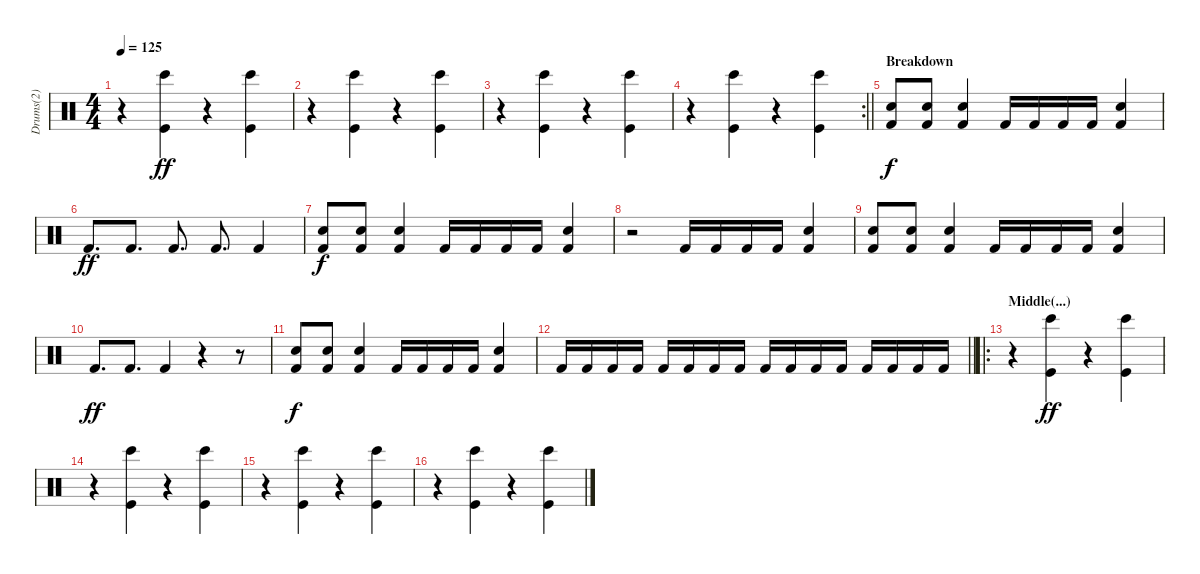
\track ("Drums(2)" "Drums(2)") {instrument percussion}
\staff {score}
\articulation defaults
\ts (4 4)
\tempo 125
\clef neutral
\ks c
r.4{dy ff} ("Kick (hit)" "Bongo High (hit)").4 r.4 ("Kick (hit)" "Bongo High (hit)").4 |
r.4 ("Kick (hit)" "Bongo High (hit)").4 r.4 ("Kick (hit)" "Bongo High (hit)").4 |
r.4 ("Kick (hit)" "Bongo High (hit)").4 r.4 ("Kick (hit)" "Bongo High (hit)").4 |
\rc 2
\barLineRight lightlight
r.4 ("Kick (hit)" "Bongo High (hit)").4 r.4 ("Kick (hit)" "Bongo High (hit)").4 |
\section ("" "Breakdown")
("Snare (hit) 2" "Kick (hit) 2").8{dy f} ("Snare (hit) 2" "Kick (hit) 2").8 ("Snare (hit) 2" "Kick (hit) 2").4 "Kick (hit) 2".16 "Kick (hit) 2".16 "Kick (hit) 2".16 "Kick (hit) 2".16 ("Snare (hit) 2" "Kick (hit) 2").4 |
"Kick (hit) 2".8{d dy ff} "Kick (hit) 2".8{d} "Kick (hit) 2".8{d} "Kick (hit) 2".8{d} "Kick (hit) 2".4 |
("Snare (hit) 2" "Kick (hit) 2").8{dy f} ("Snare (hit) 2" "Kick (hit) 2").8 ("Snare (hit) 2" "Kick (hit) 2").4 "Kick (hit) 2".16 "Kick (hit) 2".16 "Kick (hit) 2".16 "Kick (hit) 2".16 ("Snare (hit) 2" "Kick (hit) 2").4 |
r.2 "Kick (hit) 2".16 "Kick (hit) 2".16 "Kick (hit) 2".16 "Kick (hit) 2".16 ("Snare (hit) 2" "Kick (hit) 2").4 |
("Snare (hit) 2" "Kick (hit) 2").8 ("Snare (hit) 2" "Kick (hit) 2").8 ("Snare (hit) 2" "Kick (hit) 2").4 "Kick (hit) 2".16 "Kick (hit) 2".16 "Kick (hit) 2".16 "Kick (hit) 2".16 ("Snare (hit) 2" "Kick (hit) 2").4 |
"Kick (hit) 2".8{d dy ff} "Kick (hit) 2".8{d} "Kick (hit) 2".4 r.4 r.8 |
("Snare (hit) 2" "Kick (hit) 2").8{dy f} ("Snare (hit) 2" "Kick (hit) 2").8 ("Snare (hit) 2" "Kick (hit) 2").4 "Kick (hit) 2".16 "Kick (hit) 2".16 "Kick (hit) 2".16 "Kick (hit) 2".16 ("Snare (hit) 2" "Kick (hit) 2").4 |
\barLineRight lightlight "Kick (hit) 2".16 "Kick (hit) 2".16 "Kick (hit) 2".16 "Kick (hit) 2".16 "Kick (hit) 2".16 "Kick (hit) 2".16 "Kick (hit) 2".16 "Kick (hit) 2".16 "Kick (hit) 2".16 "Kick (hit) 2".16 "Kick (hit) 2".16 "Kick (hit) 2".16 "Kick (hit) 2".16 "Kick (hit) 2".16 "Kick (hit) 2".16 "Kick (hit) 2".16
|
\ro
\section ("" "Middle(...)")
r.4{volume 16} ("Kick (hit)" "Bongo High (hit)").4{dy ff} r.4 ("Kick (hit)" "Bongo High (hit)").4 |
r.4 ("Kick (hit)" "Bongo High (hit)").4 r.4 ("Kick (hit)" "Bongo High (hit)").4 |
r.4 ("Kick (hit)" "Bongo High (hit)").4 r.4 ("Kick (hit)" "Bongo High (hit)").4 |
r.4 ("Kick (hit)" "Bongo High (hit)").4 r.4 ("Kick (hit)" "Bongo High (hit)").4
